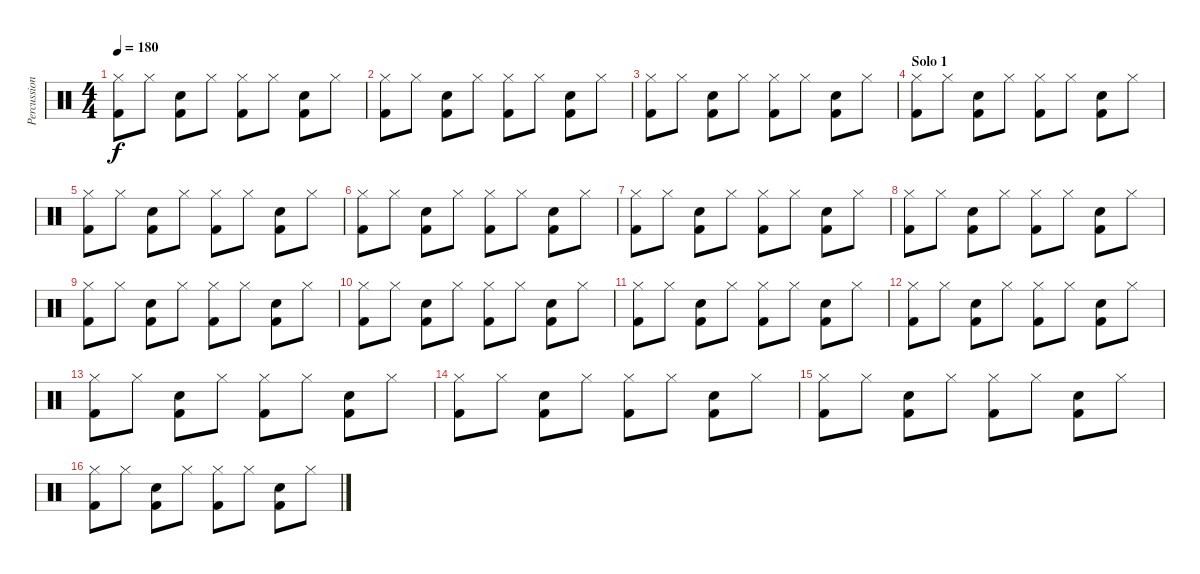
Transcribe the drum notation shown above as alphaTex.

\track ("Percussion" "Percussion") {instrument percussion}
\staff {score}
\articulation defaults
\ts (4 4)
\tempo 180
\clef neutral
\ks c
("Kick (hit) 2" "Hi-Hat (closed)").8{dy f} "Hi-Hat (closed)".8 ("Kick (hit) 2" "Snare (hit) 2").8 "Hi-Hat (closed)".8 ("Kick (hit) 2" "Hi-Hat (closed)").8 "Hi-Hat (closed)".8 ("Kick (hit) 2" "Electric Snare (hit)").8 "Hi-Hat (closed)".8 |
("Kick (hit) 2" "Hi-Hat (closed)").8 "Hi-Hat (closed)".8 ("Kick (hit) 2" "Snare (hit) 2").8 "Hi-Hat (closed)".8 ("Kick (hit) 2" "Hi-Hat (closed)").8 "Hi-Hat (closed)".8 ("Kick (hit) 2" "Electric Snare (hit)").8 "Hi-Hat (closed)".8 |
("Kick (hit) 2" "Hi-Hat (closed)").8 "Hi-Hat (closed)".8 ("Kick (hit) 2" "Snare (hit) 2").8 "Hi-Hat (closed)".8 ("Kick (hit) 2" "Hi-Hat (closed)").8 "Hi-Hat (closed)".8 ("Kick (hit) 2" "Electric Snare (hit)").8 "Hi-Hat (closed)".8 |
\section ("" "Solo 1")
("Kick (hit) 2" "Hi-Hat (closed)").8 "Hi-Hat (closed)".8 ("Kick (hit) 2" "Snare (hit) 2").8 "Hi-Hat (closed)".8 ("Kick (hit) 2" "Hi-Hat (closed)").8 "Hi-Hat (closed)".8 ("Kick (hit) 2" "Electric Snare (hit)").8 "Hi-Hat (closed)".8 |
("Kick (hit) 2" "Hi-Hat (closed)").8 "Hi-Hat (closed)".8 ("Kick (hit) 2" "Snare (hit) 2").8 "Hi-Hat (closed)".8 ("Kick (hit) 2" "Hi-Hat (closed)").8 "Hi-Hat (closed)".8 ("Kick (hit) 2" "Electric Snare (hit)").8 "Hi-Hat (closed)".8 |
("Kick (hit) 2" "Hi-Hat (closed)").8 "Hi-Hat (closed)".8 ("Kick (hit) 2" "Snare (hit) 2").8 "Hi-Hat (closed)".8 ("Kick (hit) 2" "Hi-Hat (closed)").8 "Hi-Hat (closed)".8 ("Kick (hit) 2" "Electric Snare (hit)").8 "Hi-Hat (closed)".8 |
("Kick (hit) 2" "Hi-Hat (closed)").8 "Hi-Hat (closed)".8 ("Kick (hit) 2" "Snare (hit) 2").8 "Hi-Hat (closed)".8 ("Kick (hit) 2" "Hi-Hat (closed)").8 "Hi-Hat (closed)".8 ("Kick (hit) 2" "Electric Snare (hit)").8 "Hi-Hat (closed)".8 |
("Kick (hit) 2" "Hi-Hat (closed)").8 "Hi-Hat (closed)".8 ("Kick (hit) 2" "Snare (hit) 2").8 "Hi-Hat (closed)".8 ("Kick (hit) 2" "Hi-Hat (closed)").8 "Hi-Hat (closed)".8 ("Kick (hit) 2" "Electric Snare (hit)").8 "Hi-Hat (closed)".8 |
("Kick (hit) 2" "Hi-Hat (closed)").8 "Hi-Hat (closed)".8 ("Kick (hit) 2" "Snare (hit) 2").8 "Hi-Hat (closed)".8 ("Kick (hit) 2" "Hi-Hat (closed)").8 "Hi-Hat (closed)".8 ("Kick (hit) 2" "Electric Snare (hit)").8 "Hi-Hat (closed)".8 |
("Kick (hit) 2" "Hi-Hat (closed)").8 "Hi-Hat (closed)".8 ("Kick (hit) 2" "Snare (hit) 2").8 "Hi-Hat (closed)".8 ("Kick (hit) 2" "Hi-Hat (closed)").8 "Hi-Hat (closed)".8 ("Kick (hit) 2" "Electric Snare (hit)").8 "Hi-Hat (closed)".8 |
("Kick (hit) 2" "Hi-Hat (closed)").8 "Hi-Hat (closed)".8 ("Kick (hit) 2" "Snare (hit) 2").8 "Hi-Hat (closed)".8 ("Kick (hit) 2" "Hi-Hat (closed)").8 "Hi-Hat (closed)".8 ("Kick (hit) 2" "Electric Snare (hit)").8 "Hi-Hat (closed)".8 |
("Kick (hit) 2" "Hi-Hat (closed)").8 "Hi-Hat (closed)".8 ("Kick (hit) 2" "Snare (hit) 2").8 "Hi-Hat (closed)".8 ("Kick (hit) 2" "Hi-Hat (closed)").8 "Hi-Hat (closed)".8 ("Kick (hit) 2" "Electric Snare (hit)").8 "Hi-Hat (closed)".8 |
("Kick (hit) 2" "Hi-Hat (closed)").8 "Hi-Hat (closed)".8 ("Kick (hit) 2" "Snare (hit) 2").8 "Hi-Hat (closed)".8 ("Kick (hit) 2" "Hi-Hat (closed)").8 "Hi-Hat (closed)".8 ("Kick (hit) 2" "Electric Snare (hit)").8 "Hi-Hat (closed)".8 |
("Kick (hit) 2" "Hi-Hat (closed)").8 "Hi-Hat (closed)".8 ("Kick (hit) 2" "Snare (hit) 2").8 "Hi-Hat (closed)".8 ("Kick (hit) 2" "Hi-Hat (closed)").8 "Hi-Hat (closed)".8 ("Kick (hit) 2" "Electric Snare (hit)").8 "Hi-Hat (closed)".8 |
("Kick (hit) 2" "Hi-Hat (closed)").8 "Hi-Hat (closed)".8 ("Kick (hit) 2" "Snare (hit) 2").8 "Hi-Hat (closed)".8 ("Kick (hit) 2" "Hi-Hat (closed)").8 "Hi-Hat (closed)".8 ("Kick (hit) 2" "Electric Snare (hit)").8 "Hi-Hat (closed)".8 |
("Kick (hit) 2" "Hi-Hat (closed)").8 "Hi-Hat (closed)".8 ("Kick (hit) 2" "Snare (hit) 2").8 "Hi-Hat (closed)".8 ("Kick (hit) 2" "Hi-Hat (closed)").8 "Hi-Hat (closed)".8 ("Kick (hit) 2" "Electric Snare (hit)").8 "Hi-Hat (closed)".8
